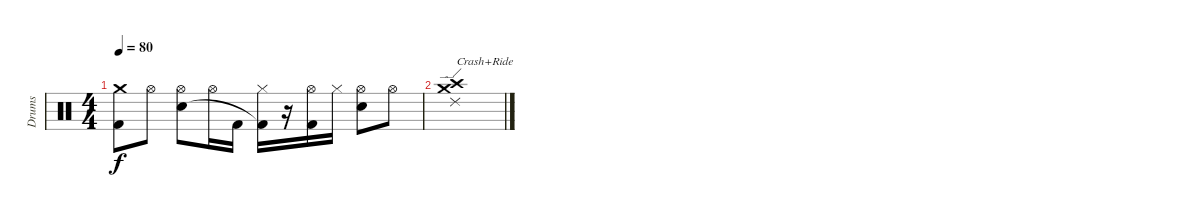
\track ("Drums" "Drums") {instrument percussion}
\staff {score}
\articulation defaults
\ts (4 4)
\tempo 80
\clef neutral
\ks c
("Crash medium (hit)" "Kick (hit) 2").8{dy f} "Hi-Hat (open)".8 ("Hi-Hat (open)" "Snare (hit) 2").8 "Hi-Hat (open)".16 "Kick (hit) 2".16 ("Hi-Hat (closed)" "Kick (hit) 2"{t}).16 r.16 ("Hi-Hat (open)" "Kick (hit) 2").16 "Hi-Hat (closed)".16 ("Hi-Hat (open)" "Snare (hit) 2").8 "Hi-Hat (open)".8 |
("Crash medium (hit)" "Crash high (hit)" "Ride (edge) 2").1{txt "Crash+Ride"}
